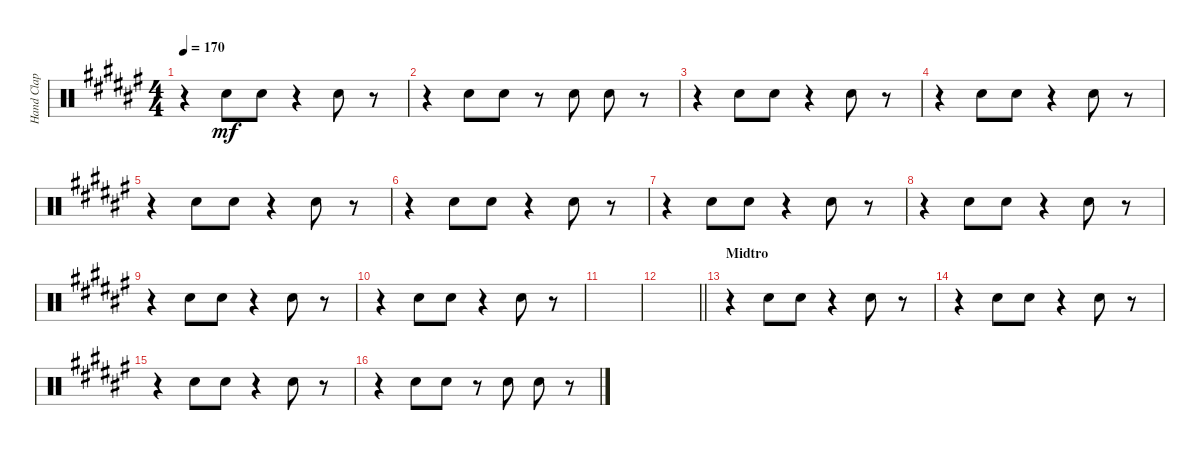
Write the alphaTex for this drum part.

\track ("Hand Clap" "Hand Clap") {instrument percussion}
\staff {score}
\articulation defaults
\ts (4 4)
\tempo 170
\clef neutral
\ks f#
r.4{dy mf} "Hand Clap (hit)".8 "Hand Clap (hit)".8 r.4 "Hand Clap (hit)".8 r.8 |
r.4 "Hand Clap (hit)".8 "Hand Clap (hit)".8 r.8 "Hand Clap (hit)".8 "Hand Clap (hit)".8 r.8 |
r.4 "Hand Clap (hit)".8 "Hand Clap (hit)".8 r.4 "Hand Clap (hit)".8 r.8 |
r.4 "Hand Clap (hit)".8 "Hand Clap (hit)".8 r.4 "Hand Clap (hit)".8 r.8 |
r.4 "Hand Clap (hit)".8 "Hand Clap (hit)".8 r.4 "Hand Clap (hit)".8 r.8 |
r.4 "Hand Clap (hit)".8 "Hand Clap (hit)".8 r.4 "Hand Clap (hit)".8 r.8 |
r.4 "Hand Clap (hit)".8 "Hand Clap (hit)".8 r.4 "Hand Clap (hit)".8 r.8 |
r.4 "Hand Clap (hit)".8 "Hand Clap (hit)".8 r.4 "Hand Clap (hit)".8 r.8 |
r.4 "Hand Clap (hit)".8 "Hand Clap (hit)".8 r.4 "Hand Clap (hit)".8 r.8 |
r.4 "Hand Clap (hit)".8 "Hand Clap (hit)".8 r.4 "Hand Clap (hit)".8 r.8 |
|
\barLineRight lightlight
|
\section ("" "Midtro")
r.4 "Hand Clap (hit)".8 "Hand Clap (hit)".8 r.4 "Hand Clap (hit)".8 r.8 |
r.4 "Hand Clap (hit)".8 "Hand Clap (hit)".8 r.4 "Hand Clap (hit)".8 r.8 |
r.4 "Hand Clap (hit)".8 "Hand Clap (hit)".8 r.4 "Hand Clap (hit)".8 r.8 |
r.4 "Hand Clap (hit)".8 "Hand Clap (hit)".8 r.8 "Hand Clap (hit)".8 "Hand Clap (hit)".8 r.8
